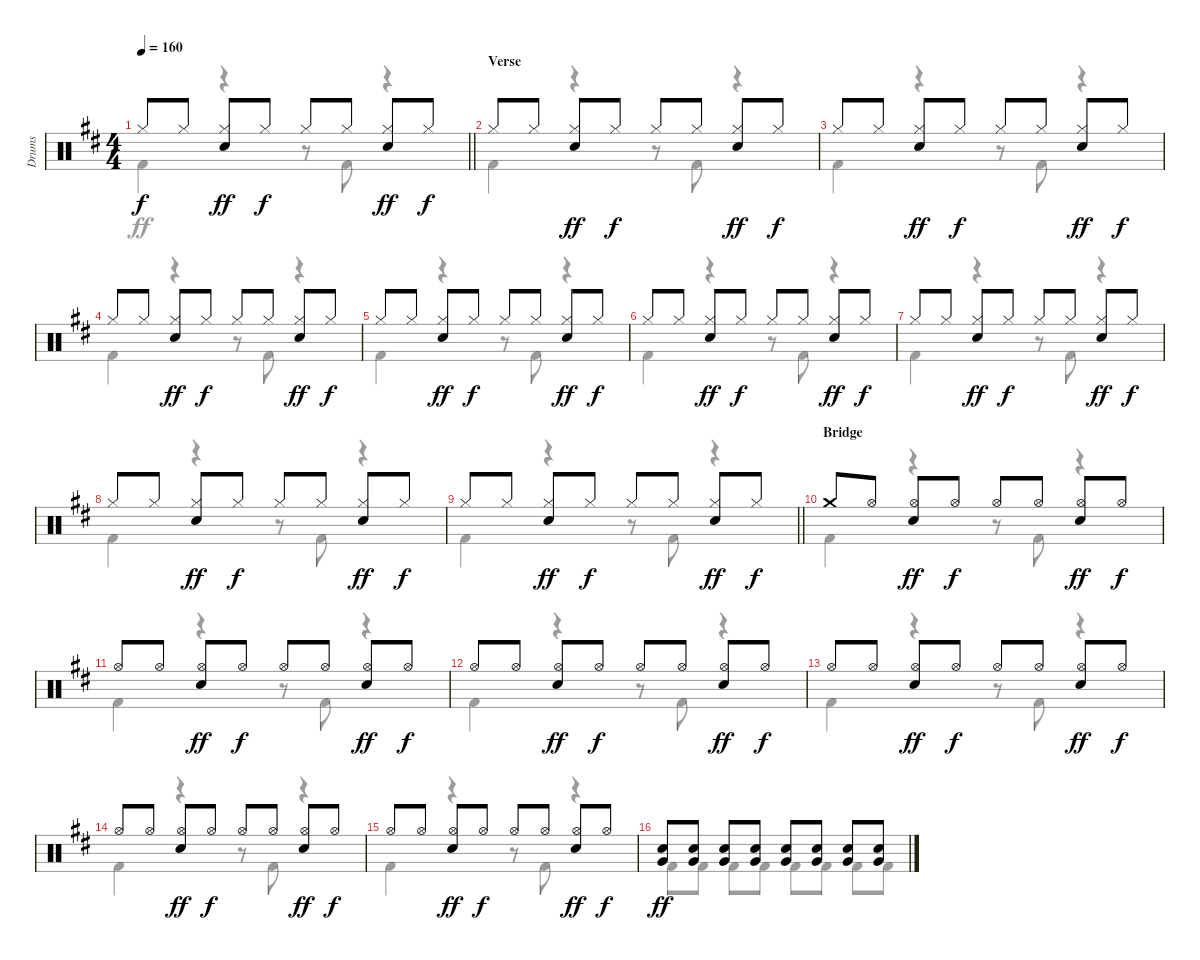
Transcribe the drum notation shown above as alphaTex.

\track ("Drums" "Drums") {instrument percussion}
\staff {score}
\articulation defaults
\voice
\ts (4 4)
\tempo 160
\clef neutral
\barLineRight lightlight
\ks bminor "Hi-Hat (closed)".8{dy f} "Hi-Hat (closed)".8
("Hi-Hat (closed)" "Electric Snare (hit)").8{dy ff} "Hi-Hat (closed)".8{dy f} "Hi-Hat (closed)".8 "Hi-Hat (closed)".8 ("Hi-Hat (closed)" "Electric Snare (hit)").8{dy ff} "Hi-Hat (closed)".8{dy f} |
\section ("" "Verse")
"Hi-Hat (closed)".8 "Hi-Hat (closed)".8 ("Hi-Hat (closed)" "Electric Snare (hit)").8{dy ff} "Hi-Hat (closed)".8{dy f} "Hi-Hat (closed)".8 "Hi-Hat (closed)".8 ("Hi-Hat (closed)" "Electric Snare (hit)").8{dy ff} "Hi-Hat (closed)".8{dy f} |
"Hi-Hat (closed)".8 "Hi-Hat (closed)".8 ("Hi-Hat (closed)" "Electric Snare (hit)").8{dy ff} "Hi-Hat (closed)".8{dy f} "Hi-Hat (closed)".8 "Hi-Hat (closed)".8 ("Hi-Hat (closed)" "Electric Snare (hit)").8{dy ff} "Hi-Hat (closed)".8{dy f} |
"Hi-Hat (closed)".8 "Hi-Hat (closed)".8 ("Hi-Hat (closed)" "Electric Snare (hit)").8{dy ff} "Hi-Hat (closed)".8{dy f} "Hi-Hat (closed)".8 "Hi-Hat (closed)".8 ("Hi-Hat (closed)" "Electric Snare (hit)").8{dy ff} "Hi-Hat (closed)".8{dy f} |
"Hi-Hat (closed)".8 "Hi-Hat (closed)".8 ("Hi-Hat (closed)" "Electric Snare (hit)").8{dy ff} "Hi-Hat (closed)".8{dy f} "Hi-Hat (closed)".8 "Hi-Hat (closed)".8 ("Hi-Hat (closed)" "Electric Snare (hit)").8{dy ff} "Hi-Hat (closed)".8{dy f} |
"Hi-Hat (closed)".8 "Hi-Hat (closed)".8 ("Hi-Hat (closed)" "Electric Snare (hit)").8{dy ff} "Hi-Hat (closed)".8{dy f} "Hi-Hat (closed)".8 "Hi-Hat (closed)".8 ("Hi-Hat (closed)" "Electric Snare (hit)").8{dy ff} "Hi-Hat (closed)".8{dy f} |
"Hi-Hat (closed)".8 "Hi-Hat (closed)".8 ("Hi-Hat (closed)" "Electric Snare (hit)").8{dy ff} "Hi-Hat (closed)".8{dy f} "Hi-Hat (closed)".8 "Hi-Hat (closed)".8 ("Hi-Hat (closed)" "Electric Snare (hit)").8{dy ff} "Hi-Hat (closed)".8{dy f} |
"Hi-Hat (closed)".8 "Hi-Hat (closed)".8 ("Hi-Hat (closed)" "Electric Snare (hit)").8{dy ff} "Hi-Hat (closed)".8{dy f} "Hi-Hat (closed)".8 "Hi-Hat (closed)".8 ("Hi-Hat (closed)" "Electric Snare (hit)").8{dy ff} "Hi-Hat (closed)".8{dy f} |
\barLineRight lightlight "Hi-Hat (closed)".8 "Hi-Hat (closed)".8
("Hi-Hat (closed)" "Electric Snare (hit)").8{dy ff} "Hi-Hat (closed)".8{dy f} "Hi-Hat (closed)".8 "Hi-Hat (closed)".8 ("Hi-Hat (closed)" "Electric Snare (hit)").8{dy ff} "Hi-Hat (closed)".8{dy f} |
\section ("" "Bridge")
"Crash medium (hit)".8 "Hi-Hat (open)".8 ("Hi-Hat (open)" "Electric Snare (hit)").8{dy ff} "Hi-Hat (open)".8{dy f} "Hi-Hat (open)".8 "Hi-Hat (open)".8 ("Hi-Hat (open)" "Electric Snare (hit)").8{dy ff} "Hi-Hat (open)".8{dy f} |
"Hi-Hat (open)".8 "Hi-Hat (open)".8 ("Hi-Hat (open)" "Electric Snare (hit)").8{dy ff} "Hi-Hat (open)".8{dy f} "Hi-Hat (open)".8 "Hi-Hat (open)".8 ("Hi-Hat (open)" "Electric Snare (hit)").8{dy ff} "Hi-Hat (open)".8{dy f} |
"Hi-Hat (open)".8 "Hi-Hat (open)".8 ("Hi-Hat (open)" "Electric Snare (hit)").8{dy ff} "Hi-Hat (open)".8{dy f} "Hi-Hat (open)".8 "Hi-Hat (open)".8 ("Hi-Hat (open)" "Electric Snare (hit)").8{dy ff} "Hi-Hat (open)".8{dy f} |
"Hi-Hat (open)".8 "Hi-Hat (open)".8 ("Hi-Hat (open)" "Electric Snare (hit)").8{dy ff} "Hi-Hat (open)".8{dy f} "Hi-Hat (open)".8 "Hi-Hat (open)".8 ("Hi-Hat (open)" "Electric Snare (hit)").8{dy ff} "Hi-Hat (open)".8{dy f} |
"Hi-Hat (open)".8 "Hi-Hat (open)".8 ("Hi-Hat (open)" "Electric Snare (hit)").8{dy ff} "Hi-Hat (open)".8{dy f} "Hi-Hat (open)".8 "Hi-Hat (open)".8 ("Hi-Hat (open)" "Electric Snare (hit)").8{dy ff} "Hi-Hat (open)".8{dy f} |
"Hi-Hat (open)".8 "Hi-Hat (open)".8 ("Hi-Hat (open)" "Electric Snare (hit)").8{dy ff} "Hi-Hat (open)".8{dy f} "Hi-Hat (open)".8 "Hi-Hat (open)".8 ("Hi-Hat (open)" "Electric Snare (hit)").8{dy ff} "Hi-Hat (open)".8{dy f} |
("Very Low Tom (hit)" "Electric Snare (hit)").8{dy ff} ("Very Low Tom (hit)" "Electric Snare (hit)").8 ("Very Low Tom (hit)" "Electric Snare (hit)").8 ("Very Low Tom (hit)" "Electric Snare (hit)").8 ("Very Low Tom (hit)" "Electric Snare (hit)").8 ("Very Low Tom (hit)" "Electric Snare (hit)").8 ("Very Low Tom (hit)" "Electric Snare (hit)").8 ("Very Low Tom (hit)" "Electric Snare (hit)").8
\voice
\clef neutral
\ottava regular
\simile none
\barLineRight lightlight
\ks bminor "Kick (hit) 2".4{dy ff}
r.4 r.8 "Kick (hit) 2".8 r.4 |
"Kick (hit) 2".4 r.4 r.8 "Kick (hit) 2".8 r.4 |
"Kick (hit) 2".4 r.4 r.8 "Kick (hit) 2".8 r.4 |
"Kick (hit) 2".4 r.4 r.8 "Kick (hit) 2".8 r.4 |
"Kick (hit) 2".4 r.4 r.8 "Kick (hit) 2".8 r.4 |
"Kick (hit) 2".4 r.4 r.8 "Kick (hit) 2".8 r.4 |
"Kick (hit) 2".4 r.4 r.8 "Kick (hit) 2".8 r.4 |
"Kick (hit) 2".4 r.4 r.8 "Kick (hit) 2".8 r.4 |
\barLineRight lightlight "Kick (hit) 2".4
r.4 r.8 "Kick (hit) 2".8 r.4 |
"Kick (hit) 2".4 r.4 r.8 "Kick (hit) 2".8 r.4 |
"Kick (hit) 2".4 r.4 r.8 "Kick (hit) 2".8 r.4 |
"Kick (hit) 2".4 r.4 r.8 "Kick (hit) 2".8 r.4 |
"Kick (hit) 2".4 r.4 r.8 "Kick (hit) 2".8 r.4 |
"Kick (hit) 2".4 r.4 r.8 "Kick (hit) 2".8 r.4 |
"Kick (hit) 2".4 r.4 r.8 "Kick (hit) 2".8 r.4 |
"Kick (hit) 2".8 "Kick (hit) 2".8 "Kick (hit) 2".8 "Kick (hit) 2".8 "Kick (hit) 2".8 "Kick (hit) 2".8 "Kick (hit) 2".8 "Kick (hit) 2".8
